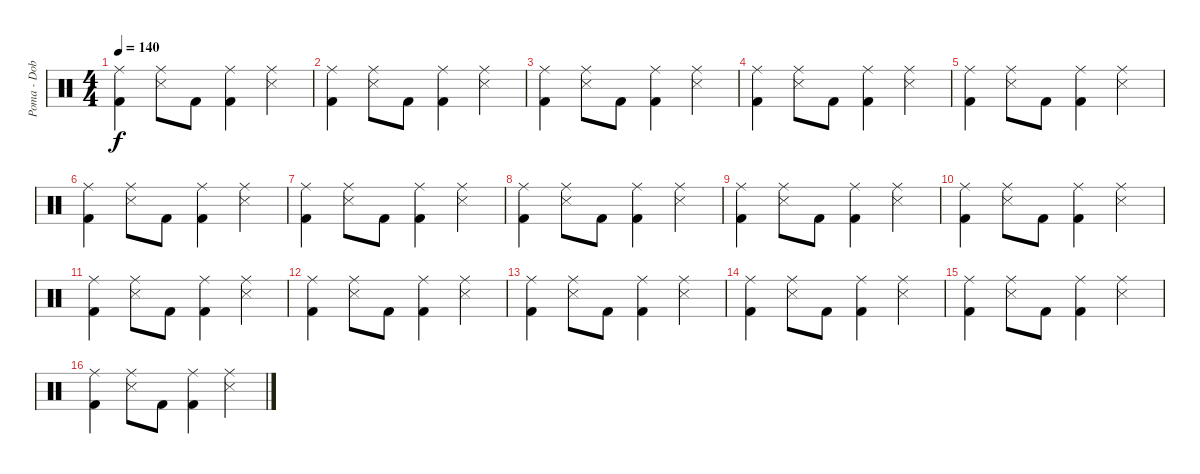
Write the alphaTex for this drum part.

\track ("Poma - Dob" "Poma - Dob") {instrument percussion}
\staff {score}
\articulation defaults
\ts (4 4)
\tempo 140
\clef neutral
\ks c
("Ride (middle)" "Kick (hit) 2").4{dy f} ("Ride (middle)" "Snare (side stick) 3").8 "Kick (hit) 2".8 ("Ride (middle)" "Kick (hit) 2").4 ("Ride (middle)" "Snare (side stick) 3").4 |
("Ride (middle)" "Kick (hit) 2").4 ("Ride (middle)" "Snare (side stick) 3").8 "Kick (hit) 2".8 ("Ride (middle)" "Kick (hit) 2").4 ("Ride (middle)" "Snare (side stick) 3").4 |
("Ride (middle)" "Kick (hit) 2").4 ("Ride (middle)" "Snare (side stick) 3").8 "Kick (hit) 2".8 ("Ride (middle)" "Kick (hit) 2").4 ("Ride (middle)" "Snare (side stick) 3").4 |
("Ride (middle)" "Kick (hit) 2").4 ("Ride (middle)" "Snare (side stick) 3").8 "Kick (hit) 2".8 ("Ride (middle)" "Kick (hit) 2").4 ("Ride (middle)" "Snare (side stick) 3").4 |
("Ride (middle)" "Kick (hit) 2").4 ("Ride (middle)" "Snare (side stick) 3").8 "Kick (hit) 2".8 ("Ride (middle)" "Kick (hit) 2").4 ("Ride (middle)" "Snare (side stick) 3").4 |
("Ride (middle)" "Kick (hit) 2").4 ("Ride (middle)" "Snare (side stick) 3").8 "Kick (hit) 2".8 ("Ride (middle)" "Kick (hit) 2").4 ("Ride (middle)" "Snare (side stick) 3").4 |
("Ride (middle)" "Kick (hit) 2").4 ("Ride (middle)" "Snare (side stick) 3").8 "Kick (hit) 2".8 ("Ride (middle)" "Kick (hit) 2").4 ("Ride (middle)" "Snare (side stick) 3").4 |
("Ride (middle)" "Kick (hit) 2").4 ("Ride (middle)" "Snare (side stick) 3").8 "Kick (hit) 2".8 ("Ride (middle)" "Kick (hit) 2").4 ("Ride (middle)" "Snare (side stick) 3").4 |
("Ride (middle)" "Kick (hit) 2").4 ("Ride (middle)" "Snare (side stick) 3").8 "Kick (hit) 2".8 ("Ride (middle)" "Kick (hit) 2").4 ("Ride (middle)" "Snare (side stick) 3").4 |
("Ride (middle)" "Kick (hit) 2").4 ("Ride (middle)" "Snare (side stick) 3").8 "Kick (hit) 2".8 ("Ride (middle)" "Kick (hit) 2").4 ("Ride (middle)" "Snare (side stick) 3").4 |
("Ride (middle)" "Kick (hit) 2").4 ("Ride (middle)" "Snare (side stick) 3").8 "Kick (hit) 2".8 ("Ride (middle)" "Kick (hit) 2").4 ("Ride (middle)" "Snare (side stick) 3").4 |
("Ride (middle)" "Kick (hit) 2").4 ("Ride (middle)" "Snare (side stick) 3").8 "Kick (hit) 2".8 ("Ride (middle)" "Kick (hit) 2").4 ("Ride (middle)" "Snare (side stick) 3").4 |
("Ride (middle)" "Kick (hit) 2").4 ("Ride (middle)" "Snare (side stick) 3").8 "Kick (hit) 2".8 ("Ride (middle)" "Kick (hit) 2").4 ("Ride (middle)" "Snare (side stick) 3").4 |
("Ride (middle)" "Kick (hit) 2").4 ("Ride (middle)" "Snare (side stick) 3").8 "Kick (hit) 2".8 ("Ride (middle)" "Kick (hit) 2").4 ("Ride (middle)" "Snare (side stick) 3").4 |
("Ride (middle)" "Kick (hit) 2").4 ("Ride (middle)" "Snare (side stick) 3").8 "Kick (hit) 2".8 ("Ride (middle)" "Kick (hit) 2").4 ("Ride (middle)" "Snare (side stick) 3").4 |
("Ride (middle)" "Kick (hit) 2").4 ("Ride (middle)" "Snare (side stick) 3").8 "Kick (hit) 2".8 ("Ride (middle)" "Kick (hit) 2").4 ("Ride (middle)" "Snare (side stick) 3").4
